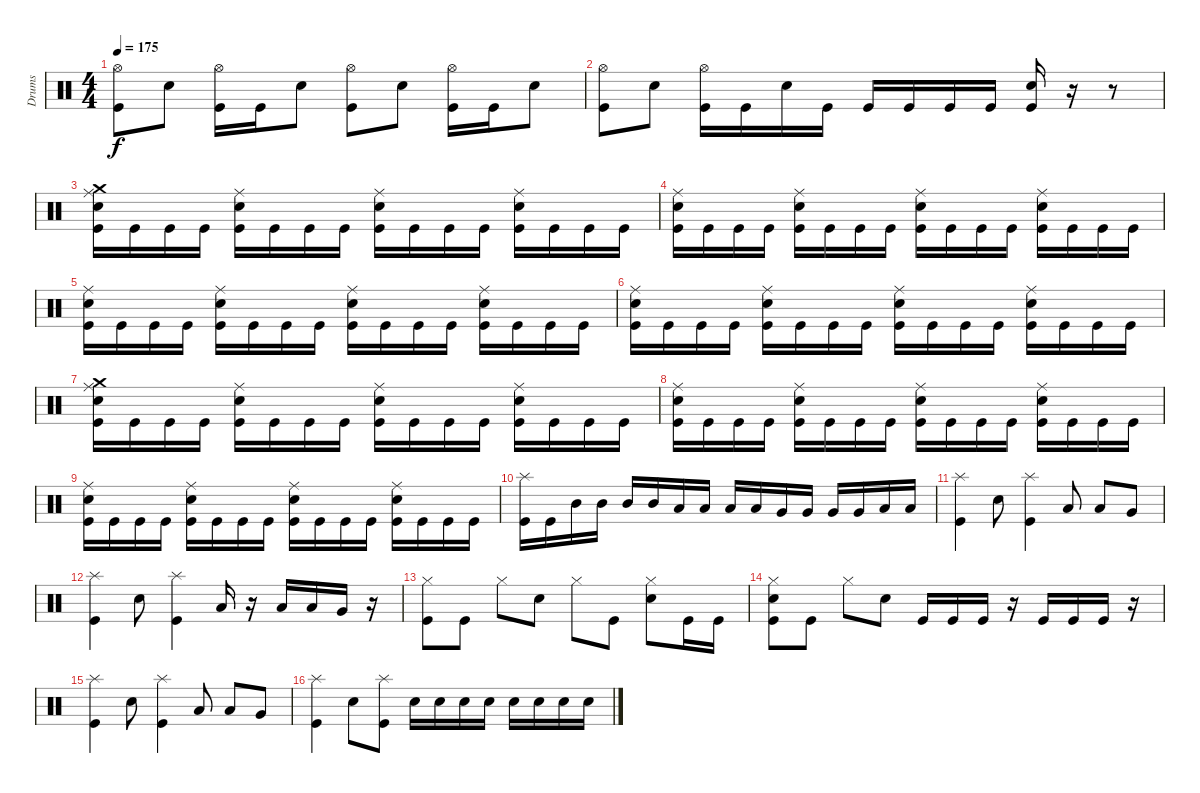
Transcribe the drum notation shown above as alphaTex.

\track ("Drums" "Drums") {instrument percussion}
\staff {score}
\articulation defaults
\ts (4 4)
\tempo 175
\clef neutral
\ks c
("Hi-Hat (open)" "Kick (hit)").8{dy f} "Snare (hit) 2".8 ("Hi-Hat (open)" "Kick (hit)").16 "Kick (hit)".16 "Snare (hit) 2".8 ("Hi-Hat (open)" "Kick (hit)").8 "Snare (hit) 2".8 ("Hi-Hat (open)" "Kick (hit)").16 "Kick (hit)".16 "Snare (hit) 2".8 |
("Hi-Hat (open)" "Kick (hit)").8 "Snare (hit) 2".8 ("Hi-Hat (open)" "Kick (hit)").16 "Kick (hit)".16 "Snare (hit) 2".16 "Kick (hit)".16 "Kick (hit)".16 "Kick (hit)".16 "Kick (hit)".16 "Kick (hit)".16 ("Snare (hit) 2" "Kick (hit)").16 r.16 r.8 |
("Ride (middle)" "Crash medium (hit)" "Snare (hit) 2" "Kick (hit)").16 "Kick (hit)".16 "Kick (hit)".16 "Kick (hit)".16 ("Ride (middle)" "Snare (hit) 2" "Kick (hit)").16 "Kick (hit)".16 "Kick (hit)".16 "Kick (hit)".16 ("Ride (middle)" "Snare (hit) 2" "Kick (hit)").16 "Kick (hit)".16 "Kick (hit)".16 "Kick (hit)".16 ("Ride (middle)" "Snare (hit) 2" "Kick (hit)").16 "Kick (hit)".16 "Kick (hit)".16 "Kick (hit)".16 |
("Ride (middle)" "Snare (hit) 2" "Kick (hit)").16 "Kick (hit)".16 "Kick (hit)".16 "Kick (hit)".16 ("Ride (middle)" "Snare (hit) 2" "Kick (hit)").16 "Kick (hit)".16 "Kick (hit)".16 "Kick (hit)".16 ("Ride (middle)" "Snare (hit) 2" "Kick (hit)").16 "Kick (hit)".16 "Kick (hit)".16 "Kick (hit)".16 ("Ride (middle)" "Snare (hit) 2" "Kick (hit)").16 "Kick (hit)".16 "Kick (hit)".16 "Kick (hit)".16 |
("Ride (middle)" "Snare (hit) 2" "Kick (hit)").16 "Kick (hit)".16 "Kick (hit)".16 "Kick (hit)".16 ("Ride (middle)" "Snare (hit) 2" "Kick (hit)").16 "Kick (hit)".16 "Kick (hit)".16 "Kick (hit)".16 ("Ride (middle)" "Snare (hit) 2" "Kick (hit)").16 "Kick (hit)".16 "Kick (hit)".16 "Kick (hit)".16 ("Ride (middle)" "Snare (hit) 2" "Kick (hit)").16 "Kick (hit)".16 "Kick (hit)".16 "Kick (hit)".16 |
("Ride (middle)" "Snare (hit) 2" "Kick (hit)").16 "Kick (hit)".16 "Kick (hit)".16 "Kick (hit)".16 ("Ride (middle)" "Snare (hit) 2" "Kick (hit)").16 "Kick (hit)".16 "Kick (hit)".16 "Kick (hit)".16 ("Ride (middle)" "Snare (hit) 2" "Kick (hit)").16 "Kick (hit)".16 "Kick (hit)".16 "Kick (hit)".16 ("Ride (middle)" "Snare (hit) 2" "Kick (hit)").16 "Kick (hit)".16 "Kick (hit)".16 "Kick (hit)".16 |
("Ride (middle)" "Crash medium (hit)" "Snare (hit) 2" "Kick (hit)").16 "Kick (hit)".16 "Kick (hit)".16 "Kick (hit)".16 ("Ride (middle)" "Snare (hit) 2" "Kick (hit)").16 "Kick (hit)".16 "Kick (hit)".16 "Kick (hit)".16 ("Ride (middle)" "Snare (hit) 2" "Kick (hit)").16 "Kick (hit)".16 "Kick (hit)".16 "Kick (hit)".16 ("Ride (middle)" "Snare (hit) 2" "Kick (hit)").16 "Kick (hit)".16 "Kick (hit)".16 "Kick (hit)".16 |
("Ride (middle)" "Snare (hit) 2" "Kick (hit)").16 "Kick (hit)".16 "Kick (hit)".16 "Kick (hit)".16 ("Ride (middle)" "Snare (hit) 2" "Kick (hit)").16 "Kick (hit)".16 "Kick (hit)".16 "Kick (hit)".16 ("Ride (middle)" "Snare (hit) 2" "Kick (hit)").16 "Kick (hit)".16 "Kick (hit)".16 "Kick (hit)".16 ("Ride (middle)" "Snare (hit) 2" "Kick (hit)").16 "Kick (hit)".16 "Kick (hit)".16 "Kick (hit)".16 |
("Ride (middle)" "Snare (hit) 2" "Kick (hit)").16 "Kick (hit)".16 "Kick (hit)".16 "Kick (hit)".16 ("Ride (middle)" "Snare (hit) 2" "Kick (hit)").16 "Kick (hit)".16 "Kick (hit)".16 "Kick (hit)".16 ("Ride (middle)" "Snare (hit) 2" "Kick (hit)").16 "Kick (hit)".16 "Kick (hit)".16 "Kick (hit)".16 ("Ride (middle)" "Snare (hit) 2" "Kick (hit)").16 "Kick (hit)".16 "Kick (hit)".16 "Kick (hit)".16 |
("Splash (hit)" "Kick (hit)").16 "Kick (hit)".16 "Mid Tom (hit)".16 "Mid Tom (hit)".16 "Mid Tom (hit)".16 "Mid Tom (hit)".16 "Low Tom (hit)".16 "Low Tom (hit)".16 "Low Tom (hit)".16 "Low Tom (hit)".16 "Very Low Tom (hit)".16 "Very Low Tom (hit)".16 "Very Low Tom (hit)".16 "Very Low Tom (hit)".16 "Low Floor Tom (hit)".16 "Low Floor Tom (hit)".16 |
("Splash (hit)" "Kick (hit)").4 "Snare (hit) 2".8 ("Splash (hit)" "Kick (hit)").4 "Low Tom (hit)".8 "Low Tom (hit)".8 "Very Low Tom (hit)".8 |
("Splash (hit)" "Kick (hit)").4 "Snare (hit) 2".8 ("Splash (hit)" "Kick (hit)").4 "Low Tom (hit)".16 r.16 "Low Tom (hit)".16 "Low Tom (hit)".16 "Very Low Tom (hit)".16 r.16 |
("Hi-Hat (closed)" "Kick (hit)").8 "Kick (hit)".8 "Hi-Hat (closed)".8 "Snare (hit) 2".8 "Hi-Hat (closed)".8 "Kick (hit)".8 ("Hi-Hat (closed)" "Snare (hit) 2").8 "Kick (hit)".16 "Kick (hit)".16 |
("Hi-Hat (closed)" "Snare (hit) 2" "Kick (hit)").8 "Kick (hit)".8 "Hi-Hat (closed)".8 "Snare (hit) 2".8 "Kick (hit)".16 "Kick (hit)".16 "Kick (hit)".16 r.16 "Kick (hit)".16 "Kick (hit)".16 "Kick (hit)".16 r.16 |
("Splash (hit)" "Kick (hit)").4 "Snare (hit) 2".8 ("Splash (hit)" "Kick (hit)").4 "Low Tom (hit)".8 "Low Tom (hit)".8 "Very Low Tom (hit)".8 |
("Splash (hit)" "Kick (hit)").4 "Snare (hit) 2".8 ("Splash (hit)" "Kick (hit)").8 "Snare (hit) 2".16 "Snare (hit) 2".16 "Snare (hit) 2".16 "Snare (hit) 2".16 "Snare (hit) 2".16 "Snare (hit) 2".16 "Snare (hit) 2".16 "Snare (hit) 2".16
